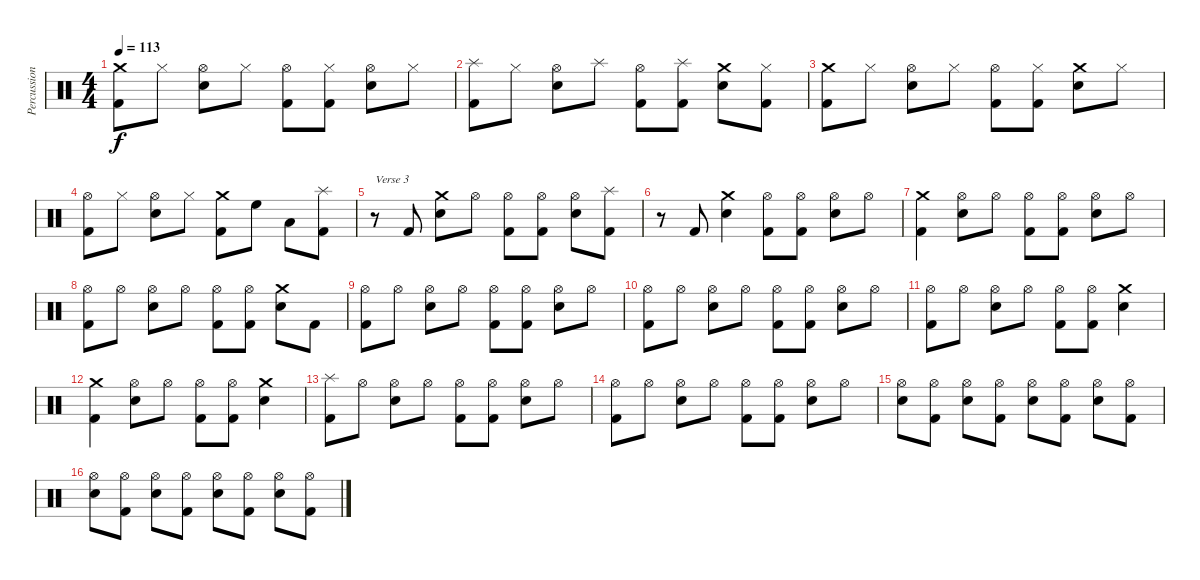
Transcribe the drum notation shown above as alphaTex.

\track ("Percussion" "Percussion") {instrument percussion}
\staff {score}
\articulation defaults
\ts (4 4)
\tempo 113
\clef neutral
\ks c
("Crash medium (hit)" "Kick (hit) 2").8{dy f} "Hi-Hat (closed)".8 ("Hi-Hat (open)" "Snare (hit) 2").8 "Hi-Hat (closed)".8 ("Hi-Hat (open)" "Kick (hit) 2").8 ("Hi-Hat (closed)" "Kick (hit) 2").8 ("Hi-Hat (open)" "Snare (hit) 2").8 "Hi-Hat (closed)".8 |
("Splash (hit)" "Kick (hit) 2").8 "Hi-Hat (closed)".8 ("Hi-Hat (open)" "Snare (hit) 2").8 "Splash (hit)".8 ("Hi-Hat (open)" "Kick (hit) 2").8 ("Splash (hit)" "Kick (hit) 2").8 ("Crash medium (hit)" "Snare (hit) 2").8 ("Hi-Hat (closed)" "Kick (hit) 2").8 |
("Crash medium (hit)" "Kick (hit) 2").8 "Hi-Hat (closed)".8 ("Hi-Hat (open)" "Snare (hit) 2").8 "Hi-Hat (closed)".8 ("Hi-Hat (open)" "Kick (hit) 2").8 ("Hi-Hat (closed)" "Kick (hit) 2").8 ("Crash medium (hit)" "Snare (hit) 2").8 "Hi-Hat (closed)".8 |
("Hi-Hat (open)" "Kick (hit) 2").8 "Hi-Hat (closed)".8 ("Hi-Hat (open)" "Snare (hit) 2").8 "Hi-Hat (closed)".8 ("Crash medium (hit)" "Kick (hit) 2").8 "High Floor Tom (hit)".8 "Low Tom (hit)".8 ("Splash (hit)" "Kick (hit) 2").8 |
r.8{txt "Verse 3"} "Kick (hit) 2".8 ("Crash medium (hit)" "Snare (hit) 2").8 "Hi-Hat (open)".8 ("Hi-Hat (open)" "Kick (hit) 2").8 ("Hi-Hat (open)" "Kick (hit) 2").8 ("Hi-Hat (open)" "Snare (hit) 2").8 ("Splash (hit)" "Kick (hit) 2").8 |
r.8 "Kick (hit) 2".8 ("Crash medium (hit)" "Snare (hit) 2").4 ("Hi-Hat (open)" "Kick (hit) 2").8 ("Hi-Hat (open)" "Kick (hit) 2").8 ("Hi-Hat (open)" "Snare (hit) 2").8 "Hi-Hat (open)".8 |
("Crash medium (hit)" "Kick (hit) 2").4 ("Hi-Hat (open)" "Snare (hit) 2").8 "Hi-Hat (open)".8 ("Hi-Hat (open)" "Kick (hit) 2").8 ("Hi-Hat (open)" "Kick (hit) 2").8 ("Hi-Hat (open)" "Snare (hit) 2").8 "Hi-Hat (open)".8 |
("Hi-Hat (open)" "Kick (hit) 2").8 "Hi-Hat (open)".8 ("Hi-Hat (open)" "Snare (hit) 2").8 "Hi-Hat (open)".8 ("Hi-Hat (open)" "Kick (hit) 2").8 ("Hi-Hat (open)" "Kick (hit) 2").8 ("Crash medium (hit)" "Snare (hit) 2").8 "Kick (hit) 2".8 |
("Hi-Hat (open)" "Kick (hit) 2").8 "Hi-Hat (open)".8 ("Hi-Hat (open)" "Snare (hit) 2").8 "Hi-Hat (open)".8 ("Hi-Hat (open)" "Kick (hit) 2").8 ("Hi-Hat (open)" "Kick (hit) 2").8 ("Hi-Hat (open)" "Snare (hit) 2").8 "Hi-Hat (open)".8 |
("Hi-Hat (open)" "Kick (hit) 2").8 "Hi-Hat (open)".8 ("Hi-Hat (open)" "Snare (hit) 2").8 "Hi-Hat (open)".8 ("Hi-Hat (open)" "Kick (hit) 2").8 ("Hi-Hat (open)" "Kick (hit) 2").8 ("Hi-Hat (open)" "Snare (hit) 2").8 "Hi-Hat (open)".8 |
("Hi-Hat (open)" "Kick (hit) 2").8 "Hi-Hat (open)".8 ("Hi-Hat (open)" "Snare (hit) 2").8 "Hi-Hat (open)".8 ("Hi-Hat (open)" "Kick (hit) 2").8 ("Hi-Hat (open)" "Kick (hit) 2").8 ("Crash medium (hit)" "Snare (hit) 2").4 |
("Crash medium (hit)" "Kick (hit) 2").4 ("Hi-Hat (open)" "Snare (hit) 2").8 "Hi-Hat (open)".8 ("Hi-Hat (open)" "Kick (hit) 2").8 ("Hi-Hat (open)" "Kick (hit) 2").8 ("Crash medium (hit)" "Snare (hit) 2").4 |
("Splash (hit)" "Kick (hit) 2").8 "Hi-Hat (open)".8 ("Hi-Hat (open)" "Snare (hit) 2").8 "Hi-Hat (open)".8 ("Hi-Hat (open)" "Kick (hit) 2").8 ("Hi-Hat (open)" "Kick (hit) 2").8 ("Hi-Hat (open)" "Snare (hit) 2").8 "Hi-Hat (open)".8 |
("Hi-Hat (open)" "Kick (hit) 2").8 "Hi-Hat (open)".8 ("Hi-Hat (open)" "Snare (hit) 2").8 "Hi-Hat (open)".8 ("Hi-Hat (open)" "Kick (hit) 2").8 ("Hi-Hat (open)" "Kick (hit) 2").8 ("Hi-Hat (open)" "Snare (hit) 2").8 "Hi-Hat (open)".8 |
("Hi-Hat (open)" "Snare (hit) 2").8 ("Hi-Hat (open)" "Kick (hit) 2").8 ("Hi-Hat (open)" "Snare (hit) 2").8 ("Hi-Hat (open)" "Kick (hit) 2").8 ("Hi-Hat (open)" "Snare (hit) 2").8 ("Hi-Hat (open)" "Kick (hit) 2").8 ("Hi-Hat (open)" "Snare (hit) 2").8 ("Hi-Hat (open)" "Kick (hit) 2").8 |
("Hi-Hat (open)" "Snare (hit) 2").8 ("Hi-Hat (open)" "Kick (hit) 2").8 ("Hi-Hat (open)" "Snare (hit) 2").8 ("Hi-Hat (open)" "Kick (hit) 2").8 ("Hi-Hat (open)" "Snare (hit) 2").8 ("Hi-Hat (open)" "Kick (hit) 2").8 ("Hi-Hat (open)" "Snare (hit) 2").8 ("Hi-Hat (open)" "Kick (hit) 2").8
